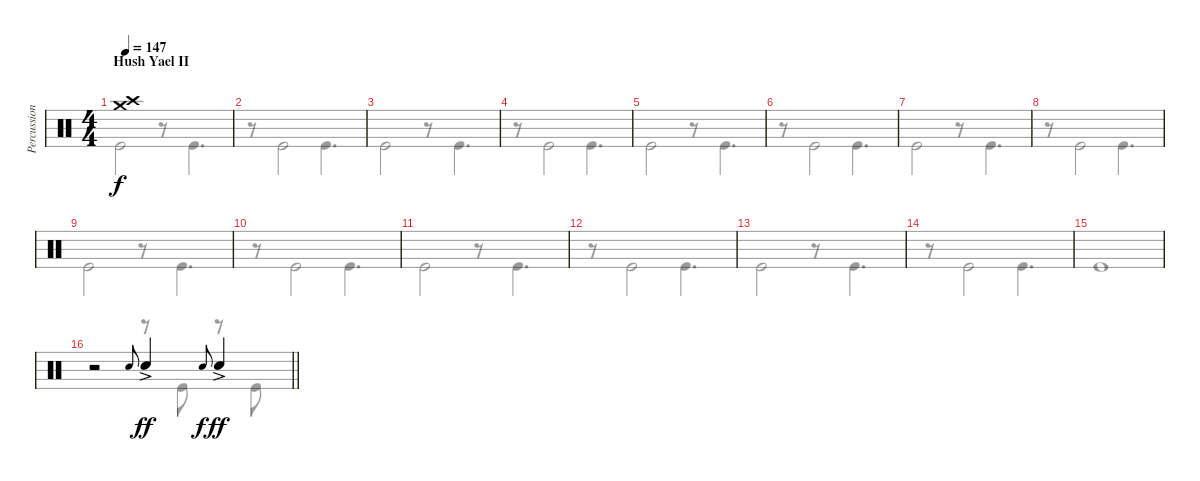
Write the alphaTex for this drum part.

\track ("Percussion" "Percussion") {instrument percussion}
\staff {score}
\articulation defaults
\voice
\ts (4 4)
\section ("" "Hush Yael II")
\tempo 147
\clef neutral
\ks aminor
("Crash medium (hit)" "Crash high (hit)").1{dy f} |
|
|
|
|
|
|
|
|
|
|
|
|
|
|
\barLineRight lightlight
r.2 "Electric Snare (hit)".8{gr onbeat} "Electric Snare (hit)"{ac}.4{dy ff} "Electric Snare (hit)".8{gr onbeat dy f} "Electric Snare (hit)"{ac}.4{dy ff}
\voice
\clef neutral
\ottava regular
\simile none
\ks aminor "Kick (hit)".2{dy f}
r.8 "Kick (hit)".4{d} |
r.8 "Kick (hit)".2 "Kick (hit)".4{d} |
"Kick (hit)".2 r.8 "Kick (hit)".4{d} |
r.8 "Kick (hit)".2 "Kick (hit)".4{d} |
"Kick (hit)".2 r.8 "Kick (hit)".4{d} |
r.8 "Kick (hit)".2 "Kick (hit)".4{d} |
"Kick (hit)".2 r.8 "Kick (hit)".4{d} |
r.8 "Kick (hit)".2 "Kick (hit)".4{d} |
"Kick (hit)".2 r.8 "Kick (hit)".4{d} |
r.8 "Kick (hit)".2 "Kick (hit)".4{d} |
"Kick (hit)".2 r.8 "Kick (hit)".4{d} |
r.8 "Kick (hit)".2 "Kick (hit)".4{d} |
"Kick (hit)".2 r.8 "Kick (hit)".4{d} |
r.8 "Kick (hit)".2 "Kick (hit)".4{d} |
"Kick (hit)".1 |
\barLineRight lightlight
r.2 r.8 "Kick (hit)".8 r.8 "Kick (hit)".8
